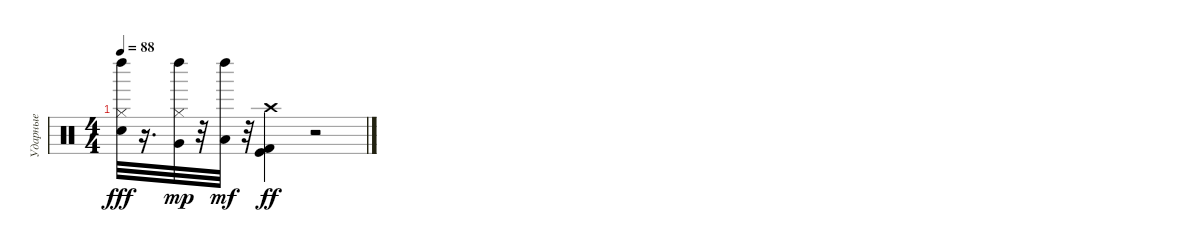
\track ("Ударные" "Ударные") {instrument percussion}
\staff {score}
\articulation defaults
\ts (4 4)
\tempo 88
\clef neutral
\ks c
("Snare (hit) 2" "Hi-Hat (closed)" "Left Maraca (hit)").32{dy fff} r.16{d} ("Hi-Hat (closed)" "Very Low Tom (hit)" "Left Maraca (hit)").32{dy mp} r.32 ("Low Floor Tom (hit)" "Left Maraca (hit)").32{dy mf} r.32 ("Kick (hit)" "Kick (hit) 2" "Crash high (hit)").4{dy ff} r.2
